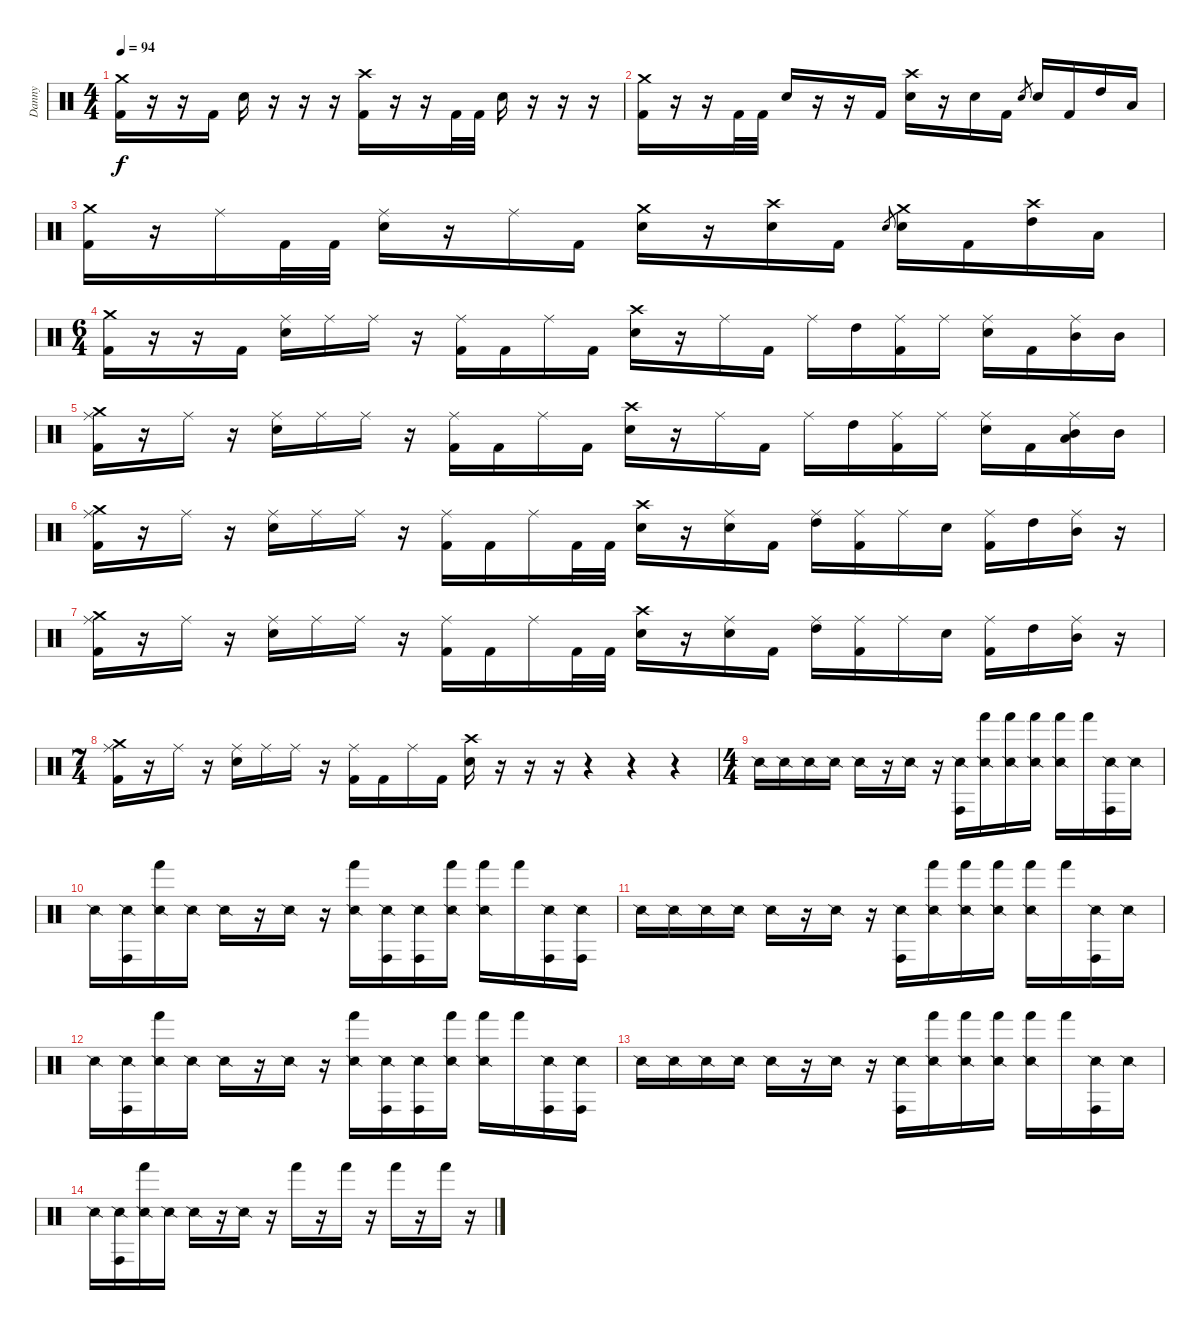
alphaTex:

\track ("Danny" "Danny") {instrument percussion}
\staff {score}
\articulation defaults
\ts (4 4)
\tempo 94
\clef neutral
\ks c
("Crash medium (hit)" "Kick (hit) 2").16{dy f} r.16 r.16 "Kick (hit) 2".16 "Electric Snare (hit)".16 r.16 r.16 r.16 ("Crash high (hit)" "Kick (hit) 2").16 r.16 r.16 "Kick (hit) 2".32 "Kick (hit) 2".32 "Electric Snare (hit)".16 r.16 r.16 r.16 |
("Crash medium (hit)" "Kick (hit) 2").16 r.16 r.16 "Kick (hit) 2".32 "Kick (hit) 2".32 "Electric Snare (hit)".16 r.16 r.16 "Kick (hit) 2".16 ("Crash high (hit)" "Electric Snare (hit)").16 r.16 "Electric Snare (hit)".16 "Kick (hit) 2".16 "Electric Snare (hit)".8{gr} "Electric Snare (hit)".16 "Kick (hit) 2".16 "High Tom (hit)".16 "Low Tom (hit)".16 |
("Crash medium (hit)" "Kick (hit) 2").16 r.16 "Ride (middle)".16 "Kick (hit) 2".32 "Kick (hit) 2".32 ("Ride (middle)" "Electric Snare (hit)").16 r.16 "Ride (middle)".16 "Kick (hit) 2".16 ("Crash medium (hit)" "Electric Snare (hit)").16 r.16 ("Crash high (hit)" "Electric Snare (hit)").16 "Kick (hit) 2".16 "Electric Snare (hit)".8{gr} ("Crash medium (hit)" "Electric Snare (hit)").16 "Kick (hit) 2".16 ("Crash high (hit)" "High Tom (hit)").16 "Low Tom (hit)".16 |
\ts (6 4)
("Crash medium (hit)" "Kick (hit) 2").16 r.16 r.16 "Kick (hit) 2".16 ("Ride (middle)" "Electric Snare (hit)").16 "Ride (middle)".16 "Ride (middle)".16 r.16 ("Ride (middle)" "Kick (hit) 2").16 "Kick (hit) 2".16 "Ride (middle)".16 "Kick (hit) 2".16 ("Crash high (hit)" "Electric Snare (hit)").16 r.16 "Ride (middle)".16 "Kick (hit) 2".16 "Ride (middle)".16 "High Tom (hit)".16 ("Ride (middle)" "Kick (hit) 2").16 "Ride (middle)".16 ("Ride (middle)" "Electric Snare (hit)").16 "Kick (hit) 2".16 ("Ride (middle)" "Mid Tom (hit)").16 "Mid Tom (hit)".16 |
("Crash medium (hit)" "Ride (middle)" "Kick (hit) 2").16 r.16 "Ride (middle)".16 r.16 ("Ride (middle)" "Electric Snare (hit)").16 "Ride (middle)".16 "Ride (middle)".16 r.16 ("Ride (middle)" "Kick (hit) 2").16 "Kick (hit) 2".16 "Ride (middle)".16 "Kick (hit) 2".16 ("Crash high (hit)" "Electric Snare (hit)").16 r.16 "Ride (middle)".16 "Kick (hit) 2".16 "Ride (middle)".16 "High Tom (hit)".16 ("Ride (middle)" "Kick (hit) 2").16 "Ride (middle)".16 ("Ride (middle)" "Electric Snare (hit)").16 "Kick (hit) 2".16 ("Ride (middle)" "Low Floor Tom (hit)" "Mid Tom (hit)").16 "Mid Tom (hit)".16 |
("Crash medium (hit)" "Ride (middle)" "Kick (hit) 2").16 r.16 "Ride (middle)".16 r.16 ("Ride (middle)" "Electric Snare (hit)").16 "Ride (middle)".16 "Ride (middle)".16 r.16 ("Ride (middle)" "Kick (hit) 2").16 "Kick (hit) 2".16 "Ride (middle)".16 "Kick (hit) 2".32 "Kick (hit) 2".32 ("Crash high (hit)" "Electric Snare (hit)").16 r.16 ("Ride (middle)" "Electric Snare (hit)").16 "Kick (hit) 2".16 ("Ride (middle)" "High Tom (hit)").16 ("Ride (middle)" "Kick (hit) 2").16 "Ride (middle)".16 "Electric Snare (hit)".16 ("Ride (middle)" "Kick (hit) 2").16 "High Tom (hit)".16 ("Ride (middle)" "Mid Tom (hit)").16 r.16 |
("Crash medium (hit)" "Ride (middle)" "Kick (hit) 2").16 r.16 "Ride (middle)".16 r.16 ("Ride (middle)" "Electric Snare (hit)").16 "Ride (middle)".16 "Ride (middle)".16 r.16 ("Ride (middle)" "Kick (hit) 2").16 "Kick (hit) 2".16 "Ride (middle)".16 "Kick (hit) 2".32 "Kick (hit) 2".32 ("Crash high (hit)" "Electric Snare (hit)").16 r.16 ("Ride (middle)" "Electric Snare (hit)").16 "Kick (hit) 2".16 ("Ride (middle)" "High Tom (hit)").16 ("Ride (middle)" "Kick (hit) 2").16 "Ride (middle)".16 "Electric Snare (hit)".16 ("Ride (middle)" "Kick (hit) 2").16 "High Tom (hit)".16 ("Ride (middle)" "Mid Tom (hit)").16 r.16 |
\ts (7 4)
("Crash medium (hit)" "Ride (middle)" "Kick (hit) 2").16 r.16 "Ride (middle)".16 r.16 ("Ride (middle)" "Electric Snare (hit)").16 "Ride (middle)".16 "Ride (middle)".16 r.16 ("Ride (middle)" "Kick (hit) 2").16 "Kick (hit) 2".16 "Ride (middle)".16 "Kick (hit) 2".16 ("Crash high (hit)" "Electric Snare (hit)").16 r.16 r.16 r.16 r.4 r.4 r.4 |
\ts (4 4)
"Snare (side stick) 2".16 "Snare (side stick) 2".16 "Snare (side stick) 2".16 "Snare (side stick) 2".16 "Snare (side stick) 2".16 r.16 "Snare (side stick) 2".16 r.16 ("Conga high (hit)" "Snare (side stick) 2").16 ("Hand (hit)" "Snare (side stick) 2").16 ("Hand (hit)" "Snare (side stick) 2").16 ("Hand (hit)" "Snare (side stick) 2").16 ("Hand (hit)" "Snare (side stick) 2").16 "Hand (hit)".16 ("Conga high (hit)" "Snare (side stick) 2").16 "Snare (side stick) 2".16 |
"Snare (side stick) 2".16 ("Conga high (hit)" "Snare (side stick) 2").16 ("Hand (hit)" "Snare (side stick) 2").16 "Snare (side stick) 2".16 "Snare (side stick) 2".16 r.16 "Snare (side stick) 2".16 r.16 ("Hand (hit)" "Snare (side stick) 2").16 ("Conga high (hit)" "Snare (side stick) 2").16 ("Conga high (hit)" "Snare (side stick) 2").16 ("Hand (hit)" "Snare (side stick) 2").16 ("Hand (hit)" "Snare (side stick) 2").16 "Hand (hit)".16 ("Conga high (hit)" "Snare (side stick) 2").16 ("Conga high (hit)" "Snare (side stick) 2").16 |
"Snare (side stick) 2".16 "Snare (side stick) 2".16 "Snare (side stick) 2".16 "Snare (side stick) 2".16 "Snare (side stick) 2".16 r.16 "Snare (side stick) 2".16 r.16 ("Conga high (hit)" "Snare (side stick) 2").16 ("Hand (hit)" "Snare (side stick) 2").16 ("Hand (hit)" "Snare (side stick) 2").16 ("Hand (hit)" "Snare (side stick) 2").16 ("Hand (hit)" "Snare (side stick) 2").16 "Hand (hit)".16 ("Conga high (hit)" "Snare (side stick) 2").16 "Snare (side stick) 2".16 |
"Snare (side stick) 2".16 ("Conga high (hit)" "Snare (side stick) 2").16 ("Hand (hit)" "Snare (side stick) 2").16 "Snare (side stick) 2".16 "Snare (side stick) 2".16 r.16 "Snare (side stick) 2".16 r.16 ("Hand (hit)" "Snare (side stick) 2").16 ("Conga high (hit)" "Snare (side stick) 2").16 ("Conga high (hit)" "Snare (side stick) 2").16 ("Hand (hit)" "Snare (side stick) 2").16 ("Hand (hit)" "Snare (side stick) 2").16 "Hand (hit)".16 ("Conga high (hit)" "Snare (side stick) 2").16 ("Conga high (hit)" "Snare (side stick) 2").16 |
"Snare (side stick) 2".16 "Snare (side stick) 2".16 "Snare (side stick) 2".16 "Snare (side stick) 2".16 "Snare (side stick) 2".16 r.16 "Snare (side stick) 2".16 r.16 ("Conga high (hit)" "Snare (side stick) 2").16 ("Hand (hit)" "Snare (side stick) 2").16 ("Hand (hit)" "Snare (side stick) 2").16 ("Hand (hit)" "Snare (side stick) 2").16 ("Hand (hit)" "Snare (side stick) 2").16 "Hand (hit)".16 ("Conga high (hit)" "Snare (side stick) 2").16 "Snare (side stick) 2".16 |
"Snare (side stick) 2".16 ("Conga high (hit)" "Snare (side stick) 2").16 ("Hand (hit)" "Snare (side stick) 2").16 "Snare (side stick) 2".16 "Snare (side stick) 2".16 r.16 "Snare (side stick) 2".16 r.16 "Hand (hit)".16 r.16 "Hand (hit)".16 r.16 "Hand (hit)".16 r.16 "Hand (hit)".16 r.16
